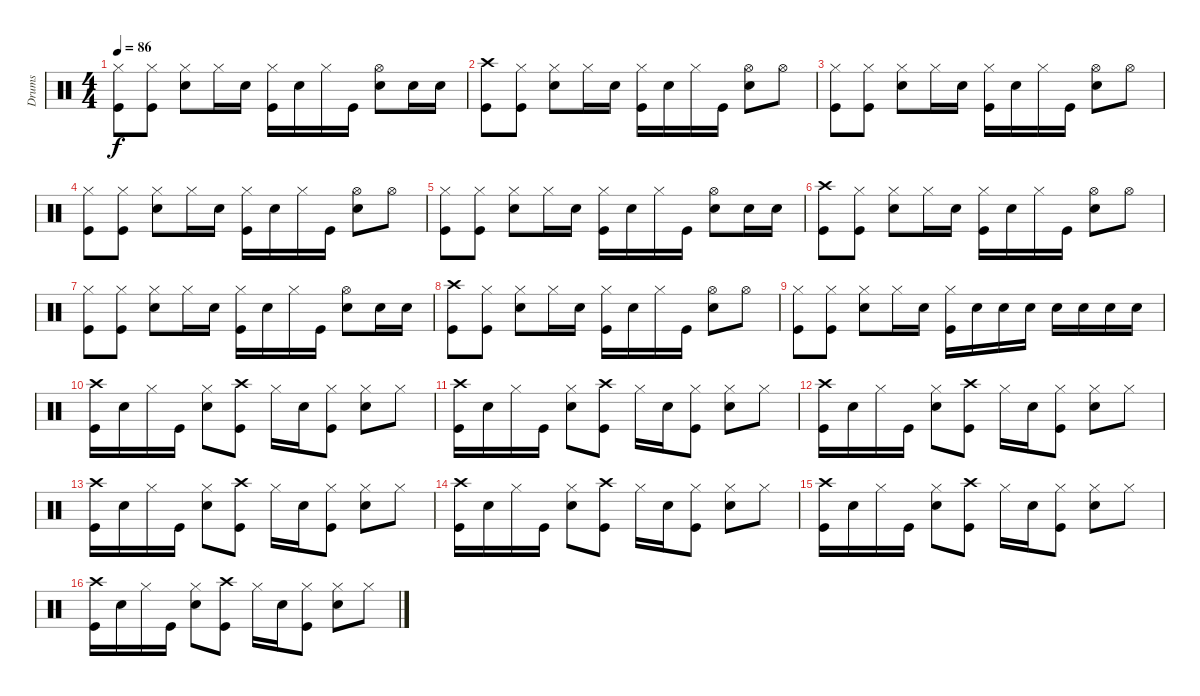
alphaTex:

\track ("Drums" "Drums") {instrument percussion}
\staff {score}
\articulation defaults
\ts (4 4)
\tempo 86
\clef neutral
\ks c
("Hi-Hat (closed)" "Kick (hit)").8{dy f} ("Hi-Hat (closed)" "Kick (hit)").8 ("Hi-Hat (closed)" "Snare (hit) 2").8 "Hi-Hat (closed)".16 "Snare (hit) 2".16 ("Hi-Hat (closed)" "Kick (hit)").16 "Snare (hit) 2".16 "Hi-Hat (closed)".16 "Kick (hit)".16 ("Hi-Hat (open)" "Snare (hit) 2").8 "Snare (hit) 2".16 "Snare (hit) 2".16 |
("Crash high (hit)" "Kick (hit)").8 ("Hi-Hat (closed)" "Kick (hit)").8 ("Hi-Hat (closed)" "Snare (hit) 2").8 "Hi-Hat (closed)".16 "Snare (hit) 2".16 ("Hi-Hat (closed)" "Kick (hit)").16 "Snare (hit) 2".16 "Hi-Hat (closed)".16 "Kick (hit)".16 ("Hi-Hat (open)" "Snare (hit) 2").8 "Hi-Hat (open)".8 |
("Hi-Hat (closed)" "Kick (hit)").8 ("Hi-Hat (closed)" "Kick (hit)").8 ("Hi-Hat (closed)" "Snare (hit) 2").8 "Hi-Hat (closed)".16 "Snare (hit) 2".16 ("Hi-Hat (closed)" "Kick (hit)").16 "Snare (hit) 2".16 "Hi-Hat (closed)".16 "Kick (hit)".16 ("Hi-Hat (open)" "Snare (hit) 2").8 "Hi-Hat (open)".8 |
("Hi-Hat (closed)" "Kick (hit)").8 ("Hi-Hat (closed)" "Kick (hit)").8 ("Hi-Hat (closed)" "Snare (hit) 2").8 "Hi-Hat (closed)".16 "Snare (hit) 2".16 ("Hi-Hat (closed)" "Kick (hit)").16 "Snare (hit) 2".16 "Hi-Hat (closed)".16 "Kick (hit)".16 ("Hi-Hat (open)" "Snare (hit) 2").8 "Hi-Hat (open)".8 |
("Hi-Hat (closed)" "Kick (hit)").8 ("Hi-Hat (closed)" "Kick (hit)").8 ("Hi-Hat (closed)" "Snare (hit) 2").8 "Hi-Hat (closed)".16 "Snare (hit) 2".16 ("Hi-Hat (closed)" "Kick (hit)").16 "Snare (hit) 2".16 "Hi-Hat (closed)".16 "Kick (hit)".16 ("Hi-Hat (open)" "Snare (hit) 2").8 "Snare (hit) 2".16 "Snare (hit) 2".16 |
("Crash high (hit)" "Kick (hit)").8 ("Hi-Hat (closed)" "Kick (hit)").8 ("Hi-Hat (closed)" "Snare (hit) 2").8 "Hi-Hat (closed)".16 "Snare (hit) 2".16 ("Hi-Hat (closed)" "Kick (hit)").16 "Snare (hit) 2".16 "Hi-Hat (closed)".16 "Kick (hit)".16 ("Hi-Hat (open)" "Snare (hit) 2").8 "Hi-Hat (open)".8 |
("Hi-Hat (closed)" "Kick (hit)").8 ("Hi-Hat (closed)" "Kick (hit)").8 ("Hi-Hat (closed)" "Snare (hit) 2").8 "Hi-Hat (closed)".16 "Snare (hit) 2".16 ("Hi-Hat (closed)" "Kick (hit)").16 "Snare (hit) 2".16 "Hi-Hat (closed)".16 "Kick (hit)".16 ("Hi-Hat (open)" "Snare (hit) 2").8 "Snare (hit) 2".16 "Snare (hit) 2".16 |
("Crash high (hit)" "Kick (hit)").8 ("Hi-Hat (closed)" "Kick (hit)").8 ("Hi-Hat (closed)" "Snare (hit) 2").8 "Hi-Hat (closed)".16 "Snare (hit) 2".16 ("Hi-Hat (closed)" "Kick (hit)").16 "Snare (hit) 2".16 "Hi-Hat (closed)".16 "Kick (hit)".16 ("Hi-Hat (open)" "Snare (hit) 2").8 "Hi-Hat (open)".8 |
("Hi-Hat (closed)" "Kick (hit)").8 ("Hi-Hat (closed)" "Kick (hit)").8 ("Hi-Hat (closed)" "Snare (hit) 2").8 "Hi-Hat (closed)".16 "Snare (hit) 2".16 ("Hi-Hat (closed)" "Kick (hit)").16 "Snare (hit) 2".16 "Snare (hit) 2".16 "Snare (hit) 2".16 "Snare (hit) 2".16 "Snare (hit) 2".16 "Snare (hit) 2".16 "Snare (hit) 2".16 |
("Crash high (hit)" "Kick (hit)").16 "Snare (hit) 2".16 "Hi-Hat (closed)".16 "Kick (hit)".16 ("Hi-Hat (closed)" "Snare (hit) 2").8 ("Crash high (hit)" "Kick (hit)").8 "Hi-Hat (closed)".16 "Snare (hit) 2".16 ("Hi-Hat (closed)" "Kick (hit)").8 ("Hi-Hat (closed)" "Snare (hit) 2").8 "Hi-Hat (closed)".8 |
("Crash high (hit)" "Kick (hit)").16 "Snare (hit) 2".16 "Hi-Hat (closed)".16 "Kick (hit)".16 ("Hi-Hat (closed)" "Snare (hit) 2").8 ("Crash high (hit)" "Kick (hit)").8 "Hi-Hat (closed)".16 "Snare (hit) 2".16 ("Hi-Hat (closed)" "Kick (hit)").8 ("Hi-Hat (closed)" "Snare (hit) 2").8 "Hi-Hat (closed)".8 |
("Crash high (hit)" "Kick (hit)").16 "Snare (hit) 2".16 "Hi-Hat (closed)".16 "Kick (hit)".16 ("Hi-Hat (closed)" "Snare (hit) 2").8 ("Crash high (hit)" "Kick (hit)").8 "Hi-Hat (closed)".16 "Snare (hit) 2".16 ("Hi-Hat (closed)" "Kick (hit)").8 ("Hi-Hat (closed)" "Snare (hit) 2").8 "Hi-Hat (closed)".8 |
("Crash high (hit)" "Kick (hit)").16 "Snare (hit) 2".16 "Hi-Hat (closed)".16 "Kick (hit)".16 ("Hi-Hat (closed)" "Snare (hit) 2").8 ("Crash high (hit)" "Kick (hit)").8 "Hi-Hat (closed)".16 "Snare (hit) 2".16 ("Hi-Hat (closed)" "Kick (hit)").8 ("Hi-Hat (closed)" "Snare (hit) 2").8 "Hi-Hat (closed)".8 |
("Crash high (hit)" "Kick (hit)").16 "Snare (hit) 2".16 "Hi-Hat (closed)".16 "Kick (hit)".16 ("Hi-Hat (closed)" "Snare (hit) 2").8 ("Crash high (hit)" "Kick (hit)").8 "Hi-Hat (closed)".16 "Snare (hit) 2".16 ("Hi-Hat (closed)" "Kick (hit)").8 ("Hi-Hat (closed)" "Snare (hit) 2").8 "Hi-Hat (closed)".8 |
("Crash high (hit)" "Kick (hit)").16 "Snare (hit) 2".16 "Hi-Hat (closed)".16 "Kick (hit)".16 ("Hi-Hat (closed)" "Snare (hit) 2").8 ("Crash high (hit)" "Kick (hit)").8 "Hi-Hat (closed)".16 "Snare (hit) 2".16 ("Hi-Hat (closed)" "Kick (hit)").8 ("Hi-Hat (closed)" "Snare (hit) 2").8 "Hi-Hat (closed)".8 |
("Crash high (hit)" "Kick (hit)").16 "Snare (hit) 2".16 "Hi-Hat (closed)".16 "Kick (hit)".16 ("Hi-Hat (closed)" "Snare (hit) 2").8 ("Crash high (hit)" "Kick (hit)").8 "Hi-Hat (closed)".16 "Snare (hit) 2".16 ("Hi-Hat (closed)" "Kick (hit)").8 ("Hi-Hat (closed)" "Snare (hit) 2").8 "Hi-Hat (closed)".8
